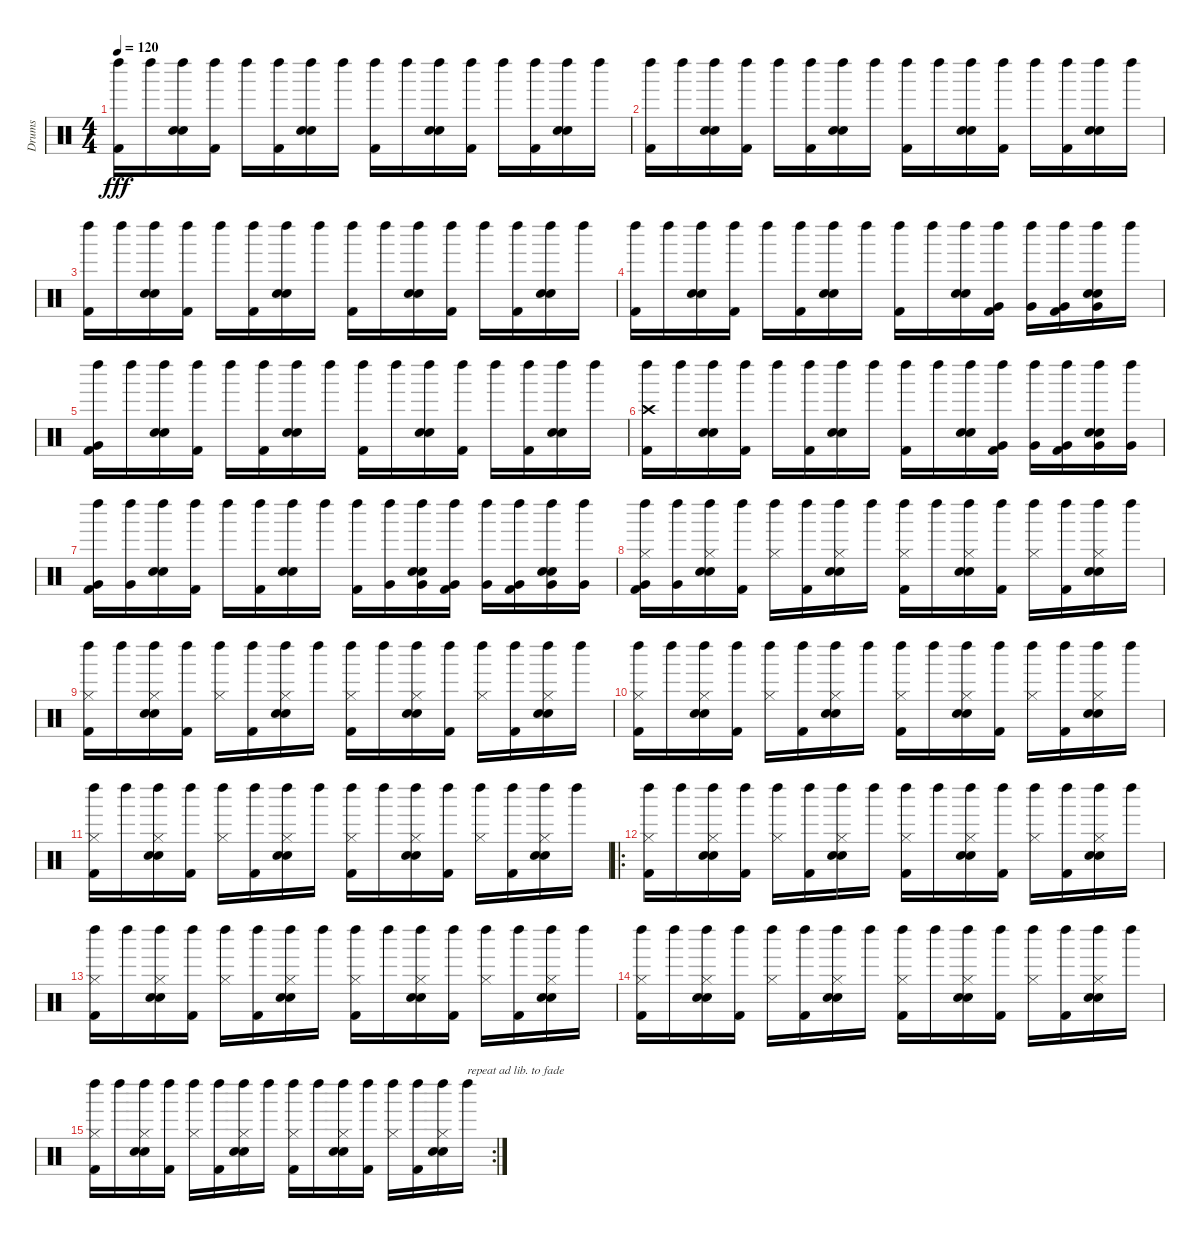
\track ("Drums" "Drums") {instrument percussion}
\staff {score}
\articulation defaults
\ts (4 4)
\tempo 120
\clef neutral
\ks c
("Left Maraca (hit)" "Kick (hit) 2").16{dy fff} "Left Maraca (hit)".16 ("Left Maraca (hit)" "Snare (hit) 2" "Snare (hit) 2").16 ("Left Maraca (hit)" "Kick (hit) 2").16 "Left Maraca (hit)".16 ("Left Maraca (hit)" "Kick (hit) 2").16 ("Left Maraca (hit)" "Snare (hit) 2" "Snare (hit) 2").16 "Left Maraca (hit)".16 ("Left Maraca (hit)" "Kick (hit) 2").16 "Left Maraca (hit)".16 ("Left Maraca (hit)" "Snare (hit) 2" "Snare (hit) 2").16 ("Left Maraca (hit)" "Kick (hit) 2").16 "Left Maraca (hit)".16 ("Left Maraca (hit)" "Kick (hit) 2").16 ("Left Maraca (hit)" "Snare (hit) 2" "Snare (hit) 2").16 "Left Maraca (hit)".16 |
("Left Maraca (hit)" "Kick (hit) 2").16 "Left Maraca (hit)".16 ("Left Maraca (hit)" "Snare (hit) 2" "Snare (hit) 2").16 ("Left Maraca (hit)" "Kick (hit) 2").16 "Left Maraca (hit)".16 ("Left Maraca (hit)" "Kick (hit) 2").16 ("Left Maraca (hit)" "Snare (hit) 2" "Snare (hit) 2").16 "Left Maraca (hit)".16 ("Left Maraca (hit)" "Kick (hit) 2").16 "Left Maraca (hit)".16 ("Left Maraca (hit)" "Snare (hit) 2" "Snare (hit) 2").16 ("Left Maraca (hit)" "Kick (hit) 2").16 "Left Maraca (hit)".16 ("Left Maraca (hit)" "Kick (hit) 2").16 ("Left Maraca (hit)" "Snare (hit) 2" "Snare (hit) 2").16 "Left Maraca (hit)".16 |
("Left Maraca (hit)" "Kick (hit) 2").16 "Left Maraca (hit)".16 ("Left Maraca (hit)" "Snare (hit) 2" "Snare (hit) 2").16 ("Left Maraca (hit)" "Kick (hit) 2").16 "Left Maraca (hit)".16 ("Left Maraca (hit)" "Kick (hit) 2").16 ("Left Maraca (hit)" "Snare (hit) 2" "Snare (hit) 2").16 "Left Maraca (hit)".16 ("Left Maraca (hit)" "Kick (hit) 2").16 "Left Maraca (hit)".16 ("Left Maraca (hit)" "Snare (hit) 2" "Snare (hit) 2").16 ("Left Maraca (hit)" "Kick (hit) 2").16 "Left Maraca (hit)".16 ("Left Maraca (hit)" "Kick (hit) 2").16 ("Left Maraca (hit)" "Snare (hit) 2" "Snare (hit) 2").16 "Left Maraca (hit)".16 |
("Left Maraca (hit)" "Kick (hit) 2").16 "Left Maraca (hit)".16 ("Left Maraca (hit)" "Snare (hit) 2" "Snare (hit) 2").16 ("Left Maraca (hit)" "Kick (hit) 2").16 "Left Maraca (hit)".16 ("Left Maraca (hit)" "Kick (hit) 2").16 ("Left Maraca (hit)" "Snare (hit) 2" "Snare (hit) 2").16 "Left Maraca (hit)".16 ("Left Maraca (hit)" "Kick (hit) 2").16 "Left Maraca (hit)".16 ("Left Maraca (hit)" "Snare (hit) 2" "Snare (hit) 2").16 ("Left Maraca (hit)" "Very Low Tom (hit)" "Kick (hit) 2").16 ("Left Maraca (hit)" "Very Low Tom (hit)").16 ("Left Maraca (hit)" "Very Low Tom (hit)" "Kick (hit) 2").16 ("Left Maraca (hit)" "Snare (hit) 2" "Snare (hit) 2" "Very Low Tom (hit)").16 "Left Maraca (hit)".16 |
("Left Maraca (hit)" "Very Low Tom (hit)" "Kick (hit) 2").16 "Left Maraca (hit)".16 ("Left Maraca (hit)" "Snare (hit) 2" "Snare (hit) 2").16 ("Left Maraca (hit)" "Kick (hit) 2").16 "Left Maraca (hit)".16 ("Left Maraca (hit)" "Kick (hit) 2").16 ("Left Maraca (hit)" "Snare (hit) 2" "Snare (hit) 2").16 "Left Maraca (hit)".16 ("Left Maraca (hit)" "Kick (hit) 2").16 "Left Maraca (hit)".16 ("Left Maraca (hit)" "Snare (hit) 2" "Snare (hit) 2").16 ("Left Maraca (hit)" "Kick (hit) 2").16 "Left Maraca (hit)".16 ("Left Maraca (hit)" "Kick (hit) 2").16 ("Left Maraca (hit)" "Snare (hit) 2" "Snare (hit) 2").16 "Left Maraca (hit)".16 |
("Crash high (hit)" "Left Maraca (hit)" "Kick (hit) 2").16 "Left Maraca (hit)".16 ("Left Maraca (hit)" "Snare (hit) 2" "Snare (hit) 2").16 ("Left Maraca (hit)" "Kick (hit) 2").16 "Left Maraca (hit)".16 ("Left Maraca (hit)" "Kick (hit) 2").16 ("Left Maraca (hit)" "Snare (hit) 2" "Snare (hit) 2").16 "Left Maraca (hit)".16 ("Left Maraca (hit)" "Kick (hit) 2").16 "Left Maraca (hit)".16 ("Left Maraca (hit)" "Snare (hit) 2" "Snare (hit) 2").16 ("Left Maraca (hit)" "Very Low Tom (hit)" "Kick (hit) 2").16 ("Left Maraca (hit)" "Very Low Tom (hit)").16 ("Left Maraca (hit)" "Very Low Tom (hit)" "Kick (hit) 2").16 ("Left Maraca (hit)" "Snare (hit) 2" "Snare (hit) 2" "Very Low Tom (hit)").16 ("Left Maraca (hit)" "Very Low Tom (hit)").16 |
("Left Maraca (hit)" "Very Low Tom (hit)" "Kick (hit) 2").16 ("Left Maraca (hit)" "Very Low Tom (hit)").16 ("Left Maraca (hit)" "Snare (hit) 2" "Snare (hit) 2").16 ("Left Maraca (hit)" "Kick (hit) 2").16 "Left Maraca (hit)".16 ("Left Maraca (hit)" "Kick (hit) 2").16 ("Left Maraca (hit)" "Snare (hit) 2" "Snare (hit) 2").16 "Left Maraca (hit)".16 ("Left Maraca (hit)" "Kick (hit) 2").16 ("Left Maraca (hit)" "Very Low Tom (hit)").16 ("Left Maraca (hit)" "Snare (hit) 2" "Snare (hit) 2" "Very Low Tom (hit)").16 ("Left Maraca (hit)" "Very Low Tom (hit)" "Kick (hit) 2").16 ("Left Maraca (hit)" "Very Low Tom (hit)").16 ("Left Maraca (hit)" "Very Low Tom (hit)" "Kick (hit) 2").16 ("Left Maraca (hit)" "Snare (hit) 2" "Snare (hit) 2" "Very Low Tom (hit)").16 ("Left Maraca (hit)" "Very Low Tom (hit)").16 |
("Hi-Hat (closed)" "Left Maraca (hit)" "Very Low Tom (hit)" "Kick (hit) 2").16 ("Left Maraca (hit)" "Very Low Tom (hit)").16 ("Hi-Hat (closed)" "Left Maraca (hit)" "Snare (hit) 2" "Snare (hit) 2").16 ("Left Maraca (hit)" "Kick (hit) 2").16 ("Hi-Hat (closed)" "Left Maraca (hit)").16 ("Left Maraca (hit)" "Kick (hit) 2").16 ("Hi-Hat (closed)" "Left Maraca (hit)" "Snare (hit) 2" "Snare (hit) 2").16 "Left Maraca (hit)".16 ("Hi-Hat (closed)" "Left Maraca (hit)" "Kick (hit) 2").16 "Left Maraca (hit)".16 ("Hi-Hat (closed)" "Left Maraca (hit)" "Snare (hit) 2" "Snare (hit) 2").16 ("Left Maraca (hit)" "Kick (hit) 2").16 ("Hi-Hat (closed)" "Left Maraca (hit)").16 ("Left Maraca (hit)" "Kick (hit) 2").16 ("Hi-Hat (closed)" "Left Maraca (hit)" "Snare (hit) 2" "Snare (hit) 2").16 "Left Maraca (hit)".16 |
("Hi-Hat (closed)" "Left Maraca (hit)" "Kick (hit) 2").16 "Left Maraca (hit)".16 ("Hi-Hat (closed)" "Left Maraca (hit)" "Snare (hit) 2" "Snare (hit) 2").16 ("Left Maraca (hit)" "Kick (hit) 2").16 ("Hi-Hat (closed)" "Left Maraca (hit)").16 ("Left Maraca (hit)" "Kick (hit) 2").16 ("Hi-Hat (closed)" "Left Maraca (hit)" "Snare (hit) 2" "Snare (hit) 2").16 "Left Maraca (hit)".16 ("Hi-Hat (closed)" "Left Maraca (hit)" "Kick (hit) 2").16 "Left Maraca (hit)".16 ("Hi-Hat (closed)" "Left Maraca (hit)" "Snare (hit) 2" "Snare (hit) 2").16 ("Left Maraca (hit)" "Kick (hit) 2").16 ("Hi-Hat (closed)" "Left Maraca (hit)").16 ("Left Maraca (hit)" "Kick (hit) 2").16 ("Hi-Hat (closed)" "Left Maraca (hit)" "Snare (hit) 2" "Snare (hit) 2").16 "Left Maraca (hit)".16 |
("Hi-Hat (closed)" "Left Maraca (hit)" "Kick (hit) 2").16 "Left Maraca (hit)".16 ("Hi-Hat (closed)" "Left Maraca (hit)" "Snare (hit) 2" "Snare (hit) 2").16 ("Left Maraca (hit)" "Kick (hit) 2").16 ("Hi-Hat (closed)" "Left Maraca (hit)").16 ("Left Maraca (hit)" "Kick (hit) 2").16 ("Hi-Hat (closed)" "Left Maraca (hit)" "Snare (hit) 2" "Snare (hit) 2").16 "Left Maraca (hit)".16 ("Hi-Hat (closed)" "Left Maraca (hit)" "Kick (hit) 2").16 "Left Maraca (hit)".16 ("Hi-Hat (closed)" "Left Maraca (hit)" "Snare (hit) 2" "Snare (hit) 2").16 ("Left Maraca (hit)" "Kick (hit) 2").16 ("Hi-Hat (closed)" "Left Maraca (hit)").16 ("Left Maraca (hit)" "Kick (hit) 2").16 ("Hi-Hat (closed)" "Left Maraca (hit)" "Snare (hit) 2" "Snare (hit) 2").16 "Left Maraca (hit)".16 |
("Hi-Hat (closed)" "Left Maraca (hit)" "Kick (hit) 2").16 "Left Maraca (hit)".16 ("Hi-Hat (closed)" "Left Maraca (hit)" "Snare (hit) 2" "Snare (hit) 2").16 ("Left Maraca (hit)" "Kick (hit) 2").16 ("Hi-Hat (closed)" "Left Maraca (hit)").16 ("Left Maraca (hit)" "Kick (hit) 2").16 ("Hi-Hat (closed)" "Left Maraca (hit)" "Snare (hit) 2" "Snare (hit) 2").16 "Left Maraca (hit)".16 ("Hi-Hat (closed)" "Left Maraca (hit)" "Kick (hit) 2").16 "Left Maraca (hit)".16 ("Hi-Hat (closed)" "Left Maraca (hit)" "Snare (hit) 2" "Snare (hit) 2").16 ("Left Maraca (hit)" "Kick (hit) 2").16 ("Hi-Hat (closed)" "Left Maraca (hit)").16 ("Left Maraca (hit)" "Kick (hit) 2").16 ("Hi-Hat (closed)" "Left Maraca (hit)" "Snare (hit) 2" "Snare (hit) 2").16 "Left Maraca (hit)".16 |
\ro
("Hi-Hat (closed)" "Left Maraca (hit)" "Kick (hit) 2").16 "Left Maraca (hit)".16 ("Hi-Hat (closed)" "Left Maraca (hit)" "Snare (hit) 2" "Snare (hit) 2").16 ("Left Maraca (hit)" "Kick (hit) 2").16 ("Hi-Hat (closed)" "Left Maraca (hit)").16 ("Left Maraca (hit)" "Kick (hit) 2").16 ("Hi-Hat (closed)" "Left Maraca (hit)" "Snare (hit) 2" "Snare (hit) 2").16 "Left Maraca (hit)".16 ("Hi-Hat (closed)" "Left Maraca (hit)" "Kick (hit) 2").16 "Left Maraca (hit)".16 ("Hi-Hat (closed)" "Left Maraca (hit)" "Snare (hit) 2" "Snare (hit) 2").16 ("Left Maraca (hit)" "Kick (hit) 2").16 ("Hi-Hat (closed)" "Left Maraca (hit)").16 ("Left Maraca (hit)" "Kick (hit) 2").16 ("Hi-Hat (closed)" "Left Maraca (hit)" "Snare (hit) 2" "Snare (hit) 2").16 "Left Maraca (hit)".16 |
("Hi-Hat (closed)" "Left Maraca (hit)" "Kick (hit) 2").16 "Left Maraca (hit)".16 ("Hi-Hat (closed)" "Left Maraca (hit)" "Snare (hit) 2" "Snare (hit) 2").16 ("Left Maraca (hit)" "Kick (hit) 2").16 ("Hi-Hat (closed)" "Left Maraca (hit)").16 ("Left Maraca (hit)" "Kick (hit) 2").16 ("Hi-Hat (closed)" "Left Maraca (hit)" "Snare (hit) 2" "Snare (hit) 2").16 "Left Maraca (hit)".16 ("Hi-Hat (closed)" "Left Maraca (hit)" "Kick (hit) 2").16 "Left Maraca (hit)".16 ("Hi-Hat (closed)" "Left Maraca (hit)" "Snare (hit) 2" "Snare (hit) 2").16 ("Left Maraca (hit)" "Kick (hit) 2").16 ("Hi-Hat (closed)" "Left Maraca (hit)").16 ("Left Maraca (hit)" "Kick (hit) 2").16 ("Hi-Hat (closed)" "Left Maraca (hit)" "Snare (hit) 2" "Snare (hit) 2").16 "Left Maraca (hit)".16 |
("Hi-Hat (closed)" "Left Maraca (hit)" "Kick (hit) 2").16 "Left Maraca (hit)".16 ("Hi-Hat (closed)" "Left Maraca (hit)" "Snare (hit) 2" "Snare (hit) 2").16 ("Left Maraca (hit)" "Kick (hit) 2").16 ("Hi-Hat (closed)" "Left Maraca (hit)").16 ("Left Maraca (hit)" "Kick (hit) 2").16 ("Hi-Hat (closed)" "Left Maraca (hit)" "Snare (hit) 2" "Snare (hit) 2").16 "Left Maraca (hit)".16 ("Hi-Hat (closed)" "Left Maraca (hit)" "Kick (hit) 2").16 "Left Maraca (hit)".16 ("Hi-Hat (closed)" "Left Maraca (hit)" "Snare (hit) 2" "Snare (hit) 2").16 ("Left Maraca (hit)" "Kick (hit) 2").16 ("Hi-Hat (closed)" "Left Maraca (hit)").16 ("Left Maraca (hit)" "Kick (hit) 2").16 ("Hi-Hat (closed)" "Left Maraca (hit)" "Snare (hit) 2" "Snare (hit) 2").16 "Left Maraca (hit)".16 |
\rc 2
("Hi-Hat (closed)" "Left Maraca (hit)" "Kick (hit) 2").16 "Left Maraca (hit)".16 ("Hi-Hat (closed)" "Left Maraca (hit)" "Snare (hit) 2" "Snare (hit) 2").16 ("Left Maraca (hit)" "Kick (hit) 2").16 ("Hi-Hat (closed)" "Left Maraca (hit)").16 ("Left Maraca (hit)" "Kick (hit) 2").16 ("Hi-Hat (closed)" "Left Maraca (hit)" "Snare (hit) 2" "Snare (hit) 2").16 "Left Maraca (hit)".16 ("Hi-Hat (closed)" "Left Maraca (hit)" "Kick (hit) 2").16 "Left Maraca (hit)".16 ("Hi-Hat (closed)" "Left Maraca (hit)" "Snare (hit) 2" "Snare (hit) 2").16 ("Left Maraca (hit)" "Kick (hit) 2").16 ("Hi-Hat (closed)" "Left Maraca (hit)").16 ("Left Maraca (hit)" "Kick (hit) 2").16 ("Hi-Hat (closed)" "Left Maraca (hit)" "Snare (hit) 2" "Snare (hit) 2").16 "Left Maraca (hit)".16{txt "repeat ad lib. to fade"}
